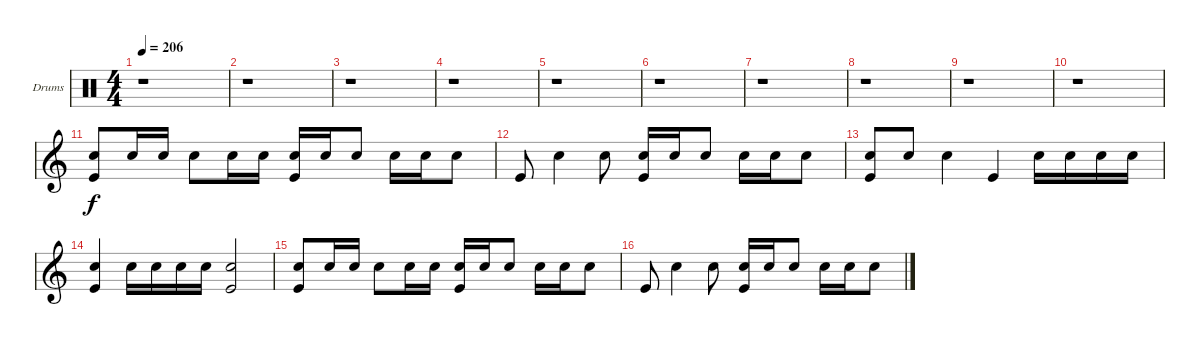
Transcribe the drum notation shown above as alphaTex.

\bracketExtendMode groupsimilarinstruments
\firstSystemTrackNameOrientation horizontal
\otherSystemsTrackNameOrientation horizontal
\track ("Drumkit" "Drums") {instrument percussion}
\staff {score}
\articulation defaults
\ts (4 4)
\tempo 206
\clef neutral
\scale
0.5
\ks c
r.1{dy f} |
\scale
0.5 r.1 |
\scale
0.5 r.1 |
\scale
0.5 r.1 |
\scale
0.5 r.1 |
\scale
0.5 r.1 |
\scale
0.5 r.1 |
\scale
0.5 r.1 |
\scale
0.5 r.1 |
\scale
0.5 r.1 |
\clef g2
\scale
0.535354 ("Snare (hit) 2" "Kick (hit)").8 "Snare (hit) 2".16 "Snare (hit) 2".16 "Snare (hit) 2".8 "Snare (hit) 2".16 "Snare (hit) 2".16 ("Snare (hit) 2" "Kick (hit)").16 "Snare (hit) 2".16 "Snare (hit) 2".8 "Snare (hit) 2".16 "Snare (hit) 2".16 "Snare (hit) 2".8 |
\scale
0.464646 "Kick (hit)".8 "Snare (hit) 2".4 "Snare (hit) 2".8 ("Snare (hit) 2" "Kick (hit)").16 "Snare (hit) 2".16 "Snare (hit) 2".8 "Snare (hit) 2".16 "Snare (hit) 2".16 "Snare (hit) 2".8 |
\scale
0.542056 ("Snare (hit) 2" "Kick (hit)").8 "Snare (hit) 2".8 "Snare (hit) 2".4 "Kick (hit)".4 "Snare (hit) 2".16 "Snare (hit) 2".16 "Snare (hit) 2".16 "Snare (hit) 2".16 |
\scale
0.457944 ("Snare (hit) 2" "Kick (hit)").4 "Snare (hit) 2".16 "Snare (hit) 2".16 "Snare (hit) 2".16 "Snare (hit) 2".16 ("Snare (hit) 2" "Kick (hit)").2 |
\scale
0.535354 ("Snare (hit) 2" "Kick (hit)").8 "Snare (hit) 2".16 "Snare (hit) 2".16 "Snare (hit) 2".8 "Snare (hit) 2".16 "Snare (hit) 2".16 ("Snare (hit) 2" "Kick (hit)").16 "Snare (hit) 2".16 "Snare (hit) 2".8 "Snare (hit) 2".16 "Snare (hit) 2".16 "Snare (hit) 2".8 |
\scale
0.464646 "Kick (hit)".8 "Snare (hit) 2".4 "Snare (hit) 2".8 ("Snare (hit) 2" "Kick (hit)").16 "Snare (hit) 2".16 "Snare (hit) 2".8 "Snare (hit) 2".16 "Snare (hit) 2".16 "Snare (hit) 2".8
